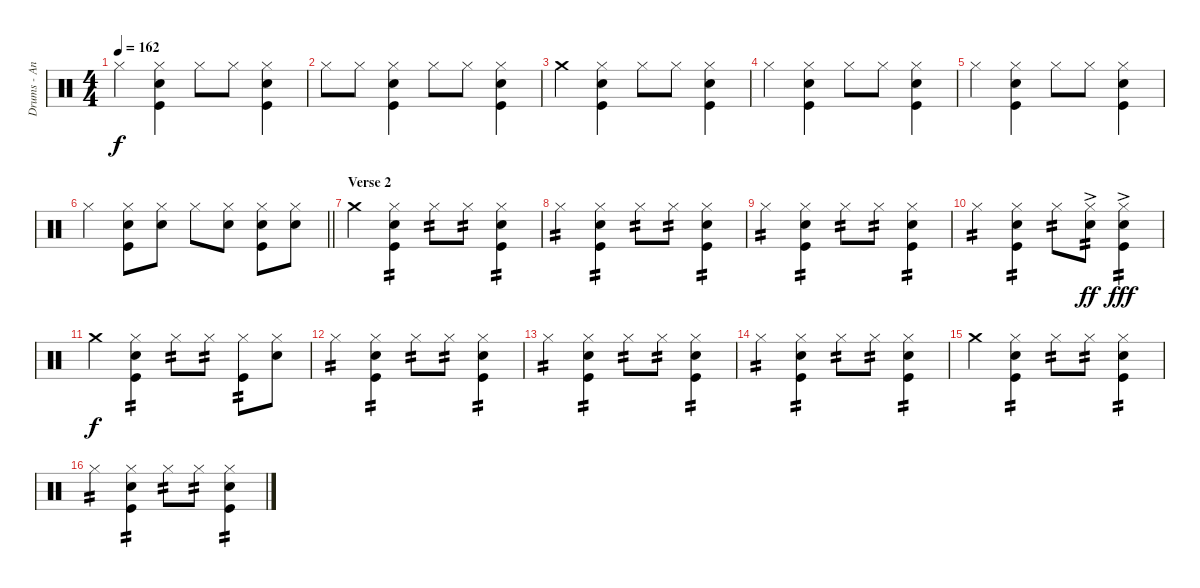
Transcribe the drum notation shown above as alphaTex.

\track ("Drums - Andriushkin" "Drums - An") {instrument percussion}
\staff {score}
\articulation defaults
\ts (4 4)
\tempo 162
\clef neutral
\ks c "Hi-Hat (closed)".4{dy f}
("Hi-Hat (closed)" "Electric Snare (hit)" "Kick (hit)").4 "Hi-Hat (closed)".8 "Hi-Hat (closed)".8 ("Hi-Hat (closed)" "Electric Snare (hit)" "Kick (hit)").4 |
"Hi-Hat (closed)".8 "Hi-Hat (closed)".8 ("Hi-Hat (closed)" "Electric Snare (hit)" "Kick (hit)").4 "Hi-Hat (closed)".8 "Hi-Hat (closed)".8 ("Hi-Hat (closed)" "Electric Snare (hit)" "Kick (hit)").4 |
"Crash medium (hit)".4 ("Hi-Hat (closed)" "Electric Snare (hit)" "Kick (hit)").4 "Hi-Hat (closed)".8 "Hi-Hat (closed)".8 ("Hi-Hat (closed)" "Electric Snare (hit)" "Kick (hit)").4 |
"Hi-Hat (closed)".4 ("Hi-Hat (closed)" "Electric Snare (hit)" "Kick (hit)").4 "Hi-Hat (closed)".8 "Hi-Hat (closed)".8 ("Hi-Hat (closed)" "Electric Snare (hit)" "Kick (hit)").4 |
"Hi-Hat (closed)".4 ("Hi-Hat (closed)" "Electric Snare (hit)" "Kick (hit)").4 "Hi-Hat (closed)".8 "Hi-Hat (closed)".8 ("Hi-Hat (closed)" "Electric Snare (hit)" "Kick (hit)").4 |
\barLineRight lightlight "Hi-Hat (closed)".4
("Hi-Hat (closed)" "Electric Snare (hit)" "Kick (hit)").8 ("Hi-Hat (closed)" "Electric Snare (hit)").8 "Hi-Hat (closed)".8 ("Hi-Hat (closed)" "Electric Snare (hit)").8 ("Hi-Hat (closed)" "Electric Snare (hit)" "Kick (hit)").8 ("Hi-Hat (closed)" "Electric Snare (hit)").8 |
\section ("" "Verse 2")
"Crash medium (hit)".4 ("Hi-Hat (closed)" "Electric Snare (hit)" "Kick (hit)").4{tp 2} "Hi-Hat (closed)".8{tp 2} "Hi-Hat (closed)".8{tp 2} ("Hi-Hat (closed)" "Electric Snare (hit)" "Kick (hit)").4{tp 2} |
"Hi-Hat (closed)".4{tp 2} ("Hi-Hat (closed)" "Electric Snare (hit)" "Kick (hit)").4{tp 2} "Hi-Hat (closed)".8{tp 2} "Hi-Hat (closed)".8{tp 2} ("Hi-Hat (closed)" "Electric Snare (hit)" "Kick (hit)").4{tp 2} |
"Hi-Hat (closed)".4{tp 2} ("Hi-Hat (closed)" "Electric Snare (hit)" "Kick (hit)").4{tp 2} "Hi-Hat (closed)".8{tp 2} "Hi-Hat (closed)".8{tp 2} ("Hi-Hat (closed)" "Electric Snare (hit)" "Kick (hit)").4{tp 2} |
"Hi-Hat (closed)".4{tp 2} ("Hi-Hat (closed)" "Electric Snare (hit)" "Kick (hit)").4{tp 2} "Hi-Hat (closed)".8{tp 2} ("Hi-Hat (closed)" "Electric Snare (hit)"{ac}).8{tp 2 dy ff} ("Hi-Hat (closed)" "Electric Snare (hit)"{ac} "Kick (hit)").4{tp 2 dy fff} |
"Crash medium (hit)".4{dy f} ("Hi-Hat (closed)" "Electric Snare (hit)" "Kick (hit)").4{tp 2} "Hi-Hat (closed)".8{tp 2} "Hi-Hat (closed)".8{tp 2} ("Hi-Hat (closed)" "Kick (hit)").8{tp 2} ("Hi-Hat (closed)" "Electric Snare (hit)").8 |
"Hi-Hat (closed)".4{tp 2} ("Hi-Hat (closed)" "Electric Snare (hit)" "Kick (hit)").4{tp 2} "Hi-Hat (closed)".8{tp 2} "Hi-Hat (closed)".8{tp 2} ("Hi-Hat (closed)" "Electric Snare (hit)" "Kick (hit)").4{tp 2} |
"Hi-Hat (closed)".4{tp 2} ("Hi-Hat (closed)" "Electric Snare (hit)" "Kick (hit)").4{tp 2} "Hi-Hat (closed)".8{tp 2} "Hi-Hat (closed)".8{tp 2} ("Hi-Hat (closed)" "Electric Snare (hit)" "Kick (hit)").4{tp 2} |
"Hi-Hat (closed)".4{tp 2} ("Hi-Hat (closed)" "Electric Snare (hit)" "Kick (hit)").4{tp 2} "Hi-Hat (closed)".8{tp 2} "Hi-Hat (closed)".8{tp 2} ("Hi-Hat (closed)" "Electric Snare (hit)" "Kick (hit)").4{tp 2} |
"Crash medium (hit)".4 ("Hi-Hat (closed)" "Electric Snare (hit)" "Kick (hit)").4{tp 2} "Hi-Hat (closed)".8{tp 2} "Hi-Hat (closed)".8{tp 2} ("Hi-Hat (closed)" "Electric Snare (hit)" "Kick (hit)").4{tp 2} |
"Hi-Hat (closed)".4{tp 2} ("Hi-Hat (closed)" "Electric Snare (hit)" "Kick (hit)").4{tp 2} "Hi-Hat (closed)".8{tp 2} "Hi-Hat (closed)".8{tp 2} ("Hi-Hat (closed)" "Electric Snare (hit)" "Kick (hit)").4{tp 2}
